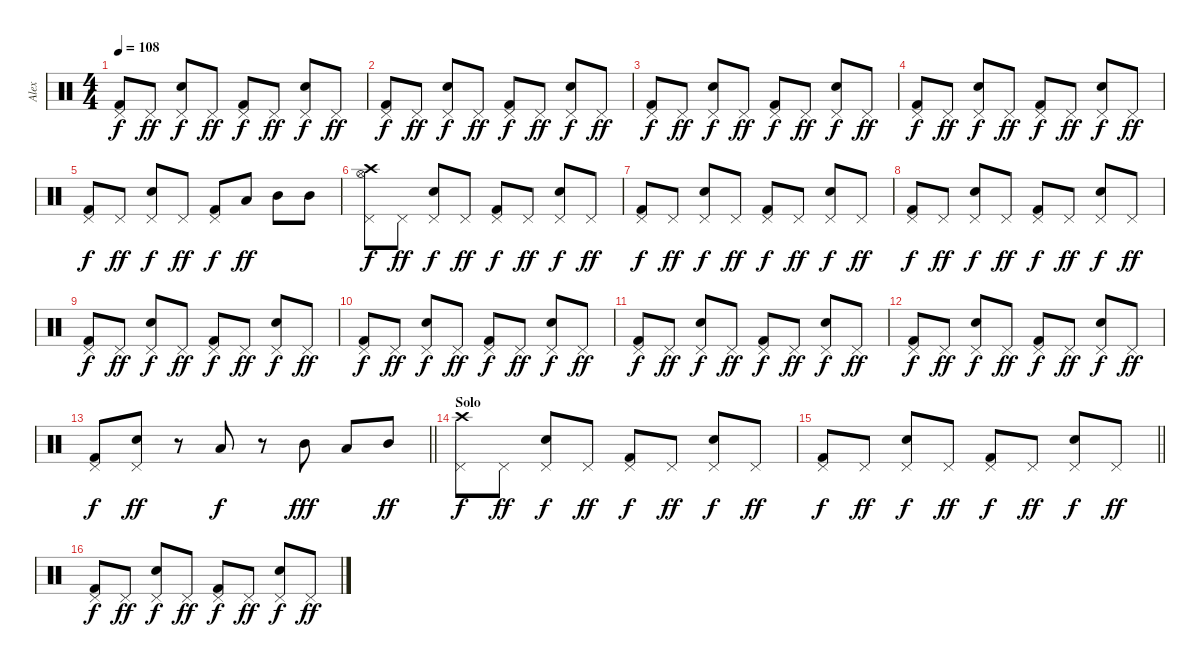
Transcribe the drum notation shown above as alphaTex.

\track ("Alex" "Alex") {instrument percussion}
\staff {score}
\articulation defaults
\ts (4 4)
\tempo 108
\clef neutral
\ks c
("Kick (hit) 2" "Pedal Hi-Hat (hit)").8{dy f} "Pedal Hi-Hat (hit)".8{dy ff} ("Electric Snare (hit)" "Pedal Hi-Hat (hit)").8{dy f} "Pedal Hi-Hat (hit)".8{dy ff} ("Kick (hit) 2" "Pedal Hi-Hat (hit)").8{dy f} "Pedal Hi-Hat (hit)".8{dy ff} ("Electric Snare (hit)" "Pedal Hi-Hat (hit)").8{dy f} "Pedal Hi-Hat (hit)".8{dy ff} |
("Kick (hit) 2" "Pedal Hi-Hat (hit)").8{dy f} "Pedal Hi-Hat (hit)".8{dy ff} ("Electric Snare (hit)" "Pedal Hi-Hat (hit)").8{dy f} "Pedal Hi-Hat (hit)".8{dy ff} ("Kick (hit) 2" "Pedal Hi-Hat (hit)").8{dy f} "Pedal Hi-Hat (hit)".8{dy ff} ("Electric Snare (hit)" "Pedal Hi-Hat (hit)").8{dy f} "Pedal Hi-Hat (hit)".8{dy ff} |
("Kick (hit) 2" "Pedal Hi-Hat (hit)").8{dy f} "Pedal Hi-Hat (hit)".8{dy ff} ("Electric Snare (hit)" "Pedal Hi-Hat (hit)").8{dy f} "Pedal Hi-Hat (hit)".8{dy ff} ("Kick (hit) 2" "Pedal Hi-Hat (hit)").8{dy f} "Pedal Hi-Hat (hit)".8{dy ff} ("Electric Snare (hit)" "Pedal Hi-Hat (hit)").8{dy f} "Pedal Hi-Hat (hit)".8{dy ff} |
("Kick (hit) 2" "Pedal Hi-Hat (hit)").8{dy f} "Pedal Hi-Hat (hit)".8{dy ff} ("Electric Snare (hit)" "Pedal Hi-Hat (hit)").8{dy f} "Pedal Hi-Hat (hit)".8{dy ff} ("Kick (hit) 2" "Pedal Hi-Hat (hit)").8{dy f} "Pedal Hi-Hat (hit)".8{dy ff} ("Electric Snare (hit)" "Pedal Hi-Hat (hit)").8{dy f} "Pedal Hi-Hat (hit)".8{dy ff} |
("Kick (hit) 2" "Pedal Hi-Hat (hit)").8{dy f} "Pedal Hi-Hat (hit)".8{dy ff} ("Electric Snare (hit)" "Pedal Hi-Hat (hit)").8{dy f} "Pedal Hi-Hat (hit)".8{dy ff} ("Kick (hit) 2" "Pedal Hi-Hat (hit)").8{dy f} "Low Tom (hit)".8{dy ff} "Mid Tom (hit)".8 "Mid Tom (hit)".8 |
("Crash high (hit)" "Hi-Hat (open)" "Pedal Hi-Hat (hit)").8{dy f} "Pedal Hi-Hat (hit)".8{dy ff} ("Electric Snare (hit)" "Pedal Hi-Hat (hit)").8{dy f} "Pedal Hi-Hat (hit)".8{dy ff} ("Kick (hit) 2" "Pedal Hi-Hat (hit)").8{dy f} "Pedal Hi-Hat (hit)".8{dy ff} ("Electric Snare (hit)" "Pedal Hi-Hat (hit)").8{dy f} "Pedal Hi-Hat (hit)".8{dy ff} |
("Kick (hit) 2" "Pedal Hi-Hat (hit)").8{dy f} "Pedal Hi-Hat (hit)".8{dy ff} ("Electric Snare (hit)" "Pedal Hi-Hat (hit)").8{dy f} "Pedal Hi-Hat (hit)".8{dy ff} ("Kick (hit) 2" "Pedal Hi-Hat (hit)").8{dy f} "Pedal Hi-Hat (hit)".8{dy ff} ("Electric Snare (hit)" "Pedal Hi-Hat (hit)").8{dy f} "Pedal Hi-Hat (hit)".8{dy ff} |
("Kick (hit) 2" "Pedal Hi-Hat (hit)").8{dy f} "Pedal Hi-Hat (hit)".8{dy ff} ("Electric Snare (hit)" "Pedal Hi-Hat (hit)").8{dy f} "Pedal Hi-Hat (hit)".8{dy ff} ("Kick (hit) 2" "Pedal Hi-Hat (hit)").8{dy f} "Pedal Hi-Hat (hit)".8{dy ff} ("Electric Snare (hit)" "Pedal Hi-Hat (hit)").8{dy f} "Pedal Hi-Hat (hit)".8{dy ff} |
("Kick (hit) 2" "Pedal Hi-Hat (hit)").8{dy f} "Pedal Hi-Hat (hit)".8{dy ff} ("Electric Snare (hit)" "Pedal Hi-Hat (hit)").8{dy f} "Pedal Hi-Hat (hit)".8{dy ff} ("Kick (hit) 2" "Pedal Hi-Hat (hit)").8{dy f} "Pedal Hi-Hat (hit)".8{dy ff} ("Electric Snare (hit)" "Pedal Hi-Hat (hit)").8{dy f} "Pedal Hi-Hat (hit)".8{dy ff} |
("Kick (hit) 2" "Pedal Hi-Hat (hit)").8{dy f} "Pedal Hi-Hat (hit)".8{dy ff} ("Electric Snare (hit)" "Pedal Hi-Hat (hit)").8{dy f} "Pedal Hi-Hat (hit)".8{dy ff} ("Kick (hit) 2" "Pedal Hi-Hat (hit)").8{dy f} "Pedal Hi-Hat (hit)".8{dy ff} ("Electric Snare (hit)" "Pedal Hi-Hat (hit)").8{dy f} "Pedal Hi-Hat (hit)".8{dy ff} |
("Kick (hit) 2" "Pedal Hi-Hat (hit)").8{dy f} "Pedal Hi-Hat (hit)".8{dy ff} ("Electric Snare (hit)" "Pedal Hi-Hat (hit)").8{dy f} "Pedal Hi-Hat (hit)".8{dy ff} ("Kick (hit) 2" "Pedal Hi-Hat (hit)").8{dy f} "Pedal Hi-Hat (hit)".8{dy ff} ("Electric Snare (hit)" "Pedal Hi-Hat (hit)").8{dy f} "Pedal Hi-Hat (hit)".8{dy ff} |
("Kick (hit) 2" "Pedal Hi-Hat (hit)").8{dy f} "Pedal Hi-Hat (hit)".8{dy ff} ("Electric Snare (hit)" "Pedal Hi-Hat (hit)").8{dy f} "Pedal Hi-Hat (hit)".8{dy ff} ("Kick (hit) 2" "Pedal Hi-Hat (hit)").8{dy f} "Pedal Hi-Hat (hit)".8{dy ff} ("Electric Snare (hit)" "Pedal Hi-Hat (hit)").8{dy f} "Pedal Hi-Hat (hit)".8{dy ff} |
\barLineRight lightlight
("Kick (hit) 2" "Pedal Hi-Hat (hit)").8{dy f} ("Electric Snare (hit)" "Pedal Hi-Hat (hit)").8{dy ff} r.8 "Low Tom (hit)".8{dy f} r.8 "Mid Tom (hit)".8{dy fff} "Low Tom (hit)".8 "Mid Tom (hit)".8{dy ff} |
\section ("" "Solo")
("Crash high (hit)" "Pedal Hi-Hat (hit)").8{dy f} "Pedal Hi-Hat (hit)".8{dy ff} ("Electric Snare (hit)" "Pedal Hi-Hat (hit)").8{dy f} "Pedal Hi-Hat (hit)".8{dy ff} ("Kick (hit) 2" "Pedal Hi-Hat (hit)").8{dy f} "Pedal Hi-Hat (hit)".8{dy ff} ("Electric Snare (hit)" "Pedal Hi-Hat (hit)").8{dy f} "Pedal Hi-Hat (hit)".8{dy ff} |
\barLineRight lightlight
("Kick (hit) 2" "Pedal Hi-Hat (hit)").8{dy f} "Pedal Hi-Hat (hit)".8{dy ff} ("Electric Snare (hit)" "Pedal Hi-Hat (hit)").8{dy f} "Pedal Hi-Hat (hit)".8{dy ff} ("Kick (hit) 2" "Pedal Hi-Hat (hit)").8{dy f} "Pedal Hi-Hat (hit)".8{dy ff} ("Electric Snare (hit)" "Pedal Hi-Hat (hit)").8{dy f} "Pedal Hi-Hat (hit)".8{dy ff} |
("Kick (hit) 2" "Pedal Hi-Hat (hit)").8{dy f} "Pedal Hi-Hat (hit)".8{dy ff} ("Electric Snare (hit)" "Pedal Hi-Hat (hit)").8{dy f} "Pedal Hi-Hat (hit)".8{dy ff} ("Kick (hit) 2" "Pedal Hi-Hat (hit)").8{dy f} "Pedal Hi-Hat (hit)".8{dy ff} ("Electric Snare (hit)" "Pedal Hi-Hat (hit)").8{dy f} "Pedal Hi-Hat (hit)".8{dy ff}
